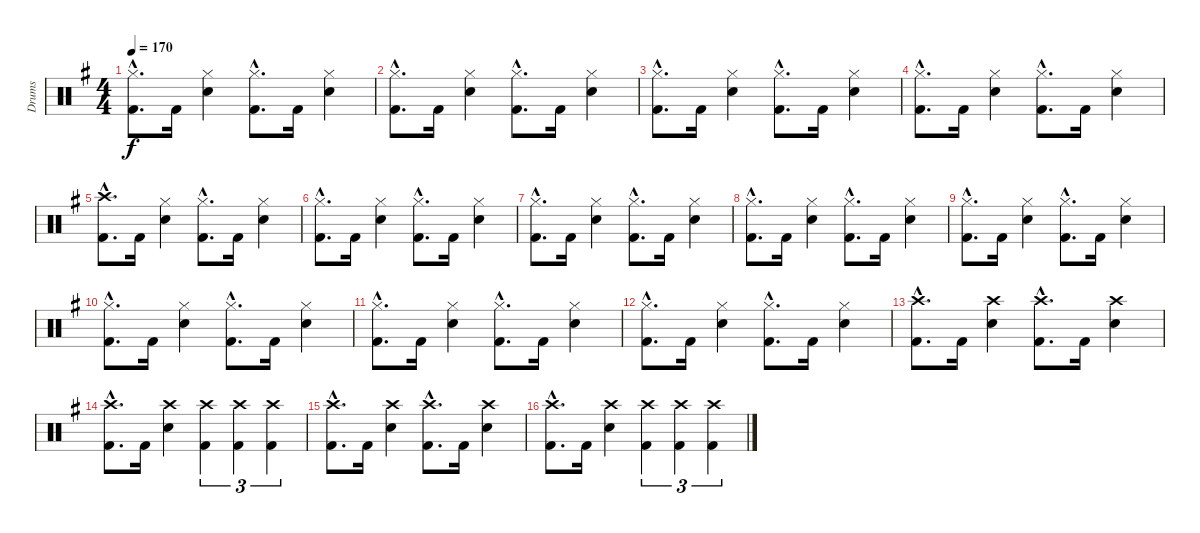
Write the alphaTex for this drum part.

\track ("Drums" "Drums") {instrument percussion}
\staff {score}
\articulation defaults
\ts (4 4)
\tempo 170
\clef neutral
\ks eminor
("Hi-Hat (closed)"{hac} "Kick (hit) 2"{hac}).8{d dy f} "Kick (hit) 2".16 ("Hi-Hat (closed)" "Snare (hit) 2").4 ("Hi-Hat (closed)"{hac} "Kick (hit) 2"{hac}).8{d} "Kick (hit) 2".16 ("Hi-Hat (closed)" "Snare (hit) 2").4 |
("Hi-Hat (closed)"{hac} "Kick (hit) 2"{hac}).8{d} "Kick (hit) 2".16 ("Hi-Hat (closed)" "Snare (hit) 2").4 ("Hi-Hat (closed)"{hac} "Kick (hit) 2"{hac}).8{d} "Kick (hit) 2".16 ("Hi-Hat (closed)" "Snare (hit) 2").4 |
("Hi-Hat (closed)"{hac} "Kick (hit) 2"{hac}).8{d} "Kick (hit) 2".16 ("Hi-Hat (closed)" "Snare (hit) 2").4 ("Hi-Hat (closed)"{hac} "Kick (hit) 2"{hac}).8{d} "Kick (hit) 2".16 ("Hi-Hat (closed)" "Snare (hit) 2").4 |
("Hi-Hat (closed)"{hac} "Kick (hit) 2"{hac}).8{d} "Kick (hit) 2".16 ("Hi-Hat (closed)" "Snare (hit) 2").4 ("Hi-Hat (closed)"{hac} "Kick (hit) 2"{hac}).8{d} "Kick (hit) 2".16 ("Hi-Hat (closed)" "Snare (hit) 2").4 |
("Crash high (hit)"{hac} "Kick (hit) 2"{hac}).8{d} "Kick (hit) 2".16 ("Hi-Hat (closed)" "Snare (hit) 2").4 ("Hi-Hat (closed)"{hac} "Kick (hit) 2"{hac}).8{d} "Kick (hit) 2".16 ("Hi-Hat (closed)" "Snare (hit) 2").4 |
("Hi-Hat (closed)"{hac} "Kick (hit) 2"{hac}).8{d} "Kick (hit) 2".16 ("Hi-Hat (closed)" "Snare (hit) 2").4 ("Hi-Hat (closed)"{hac} "Kick (hit) 2"{hac}).8{d} "Kick (hit) 2".16 ("Hi-Hat (closed)" "Snare (hit) 2").4 |
("Hi-Hat (closed)"{hac} "Kick (hit) 2"{hac}).8{d} "Kick (hit) 2".16 ("Hi-Hat (closed)" "Snare (hit) 2").4 ("Hi-Hat (closed)"{hac} "Kick (hit) 2"{hac}).8{d} "Kick (hit) 2".16 ("Hi-Hat (closed)" "Snare (hit) 2").4 |
("Hi-Hat (closed)"{hac} "Kick (hit) 2"{hac}).8{d} "Kick (hit) 2".16 ("Hi-Hat (closed)" "Snare (hit) 2").4 ("Hi-Hat (closed)"{hac} "Kick (hit) 2"{hac}).8{d} "Kick (hit) 2".16 ("Hi-Hat (closed)" "Snare (hit) 2").4 |
("Hi-Hat (closed)"{hac} "Kick (hit) 2"{hac}).8{d} "Kick (hit) 2".16 ("Hi-Hat (closed)" "Snare (hit) 2").4 ("Hi-Hat (closed)"{hac} "Kick (hit) 2"{hac}).8{d} "Kick (hit) 2".16 ("Hi-Hat (closed)" "Snare (hit) 2").4 |
("Hi-Hat (closed)"{hac} "Kick (hit) 2"{hac}).8{d} "Kick (hit) 2".16 ("Hi-Hat (closed)" "Snare (hit) 2").4 ("Hi-Hat (closed)"{hac} "Kick (hit) 2"{hac}).8{d} "Kick (hit) 2".16 ("Hi-Hat (closed)" "Snare (hit) 2").4 |
("Hi-Hat (closed)"{hac} "Kick (hit) 2"{hac}).8{d} "Kick (hit) 2".16 ("Hi-Hat (closed)" "Snare (hit) 2").4 ("Hi-Hat (closed)"{hac} "Kick (hit) 2"{hac}).8{d} "Kick (hit) 2".16 ("Hi-Hat (closed)" "Snare (hit) 2").4 |
("Hi-Hat (closed)"{hac} "Kick (hit) 2"{hac}).8{d} "Kick (hit) 2".16 ("Hi-Hat (closed)" "Snare (hit) 2").4 ("Hi-Hat (closed)"{hac} "Kick (hit) 2"{hac}).8{d} "Kick (hit) 2".16 ("Hi-Hat (closed)" "Snare (hit) 2").4 |
("Crash high (hit)"{hac} "Kick (hit) 2"{hac}).8{d} "Kick (hit) 2".16 ("Crash high (hit)" "Snare (hit) 2").4 ("Crash high (hit)"{hac} "Kick (hit) 2"{hac}).8{d} "Kick (hit) 2".16 ("Crash high (hit)" "Snare (hit) 2").4 |
("Crash high (hit)"{hac} "Kick (hit) 2"{hac}).8{d} "Kick (hit) 2".16 ("Crash high (hit)" "Snare (hit) 2").4 ("Crash high (hit)" "Kick (hit) 2").4{tu (3 2)} ("Crash high (hit)" "Kick (hit) 2").4{tu (3 2)} ("Crash high (hit)" "Kick (hit) 2").4{tu (3 2)} |
("Crash high (hit)"{hac} "Kick (hit) 2"{hac}).8{d} "Kick (hit) 2".16 ("Crash high (hit)" "Snare (hit) 2").4 ("Crash high (hit)"{hac} "Kick (hit) 2"{hac}).8{d} "Kick (hit) 2".16 ("Crash high (hit)" "Snare (hit) 2").4 |
("Crash high (hit)"{hac} "Kick (hit) 2"{hac}).8{d} "Kick (hit) 2".16 ("Crash high (hit)" "Snare (hit) 2").4 ("Crash high (hit)" "Kick (hit) 2").4{tu (3 2)} ("Crash high (hit)" "Kick (hit) 2").4{tu (3 2)} ("Crash high (hit)" "Kick (hit) 2").4{tu (3 2)}
